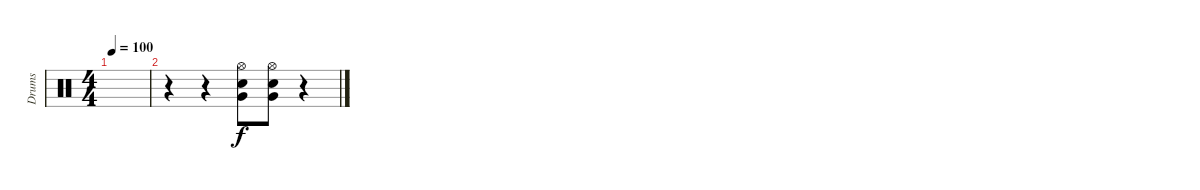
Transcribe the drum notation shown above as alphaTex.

\track ("Drums" "Drums") {instrument percussion}
\staff {score}
\articulation defaults
\ts (4 4)
\tempo 100
\clef neutral
\ks c
|
r.4 r.4 ("Hi-Hat (open)" "Electric Snare (hit)" "Very Low Tom (hit)").8 ("Hi-Hat (open)" "Electric Snare (hit)" "Very Low Tom (hit)").8 r.4
